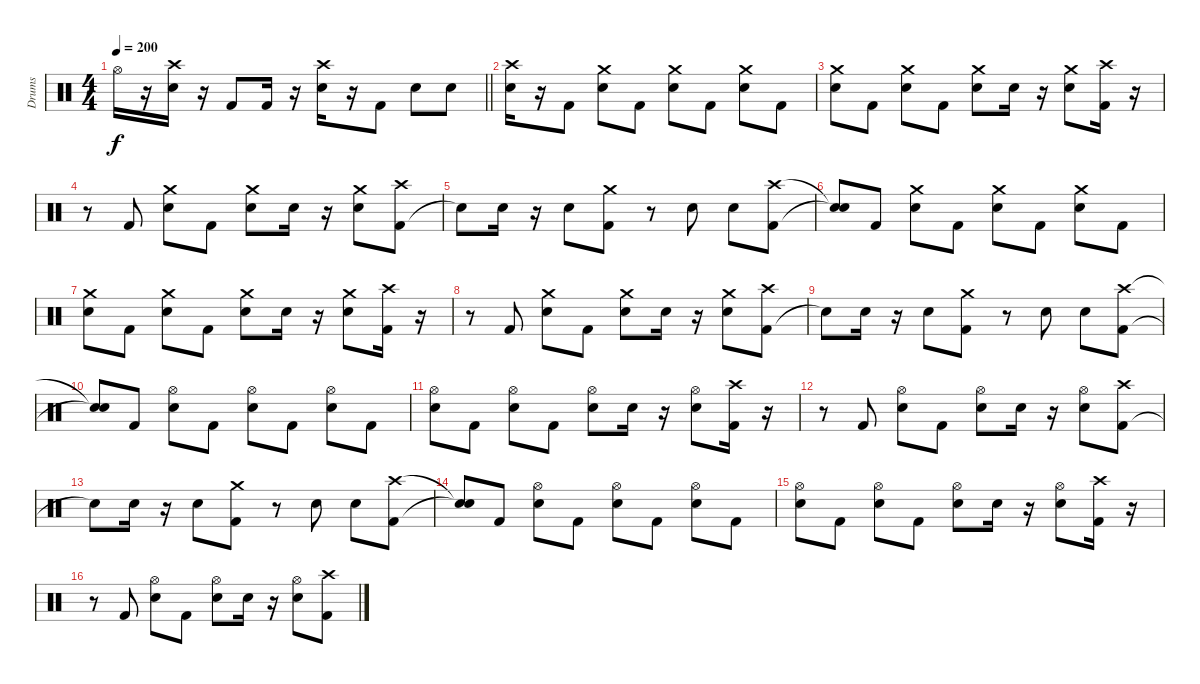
\track ("Drums" "Drums") {instrument percussion}
\staff {score}
\articulation defaults
\ts (4 4)
\tempo 200
\clef neutral
\barLineRight lightlight
\ks c "Hi-Hat (open)".16{dy f}
r.16 ("Snare (hit) 2" "Crash high (hit)").16 r.16 "Kick (hit) 2".8 "Kick (hit) 2".16 r.16 ("Snare (hit) 2" "Crash high (hit)").16 r.16 "Kick (hit) 2".8 "Snare (hit) 2".8 "Snare (hit) 2".8 |
\section ("" " ")
("Snare (hit) 2" "Crash high (hit)").16 r.16 "Kick (hit) 2".8 ("Snare (hit) 2" "Crash medium (hit)").8 "Kick (hit) 2".8 ("Snare (hit) 2" "Crash medium (hit)").8 "Kick (hit) 2".8 ("Snare (hit) 2" "Crash medium (hit)").8 "Kick (hit) 2".8 |
("Snare (hit) 2" "Crash medium (hit)").8 "Kick (hit) 2".8 ("Snare (hit) 2" "Crash medium (hit)").8 "Kick (hit) 2".8 ("Snare (hit) 2" "Crash medium (hit)").8 "Snare (hit) 2".16 r.16 ("Snare (hit) 2" "Crash medium (hit)").8 ("Kick (hit) 2" "Crash high (hit)").16 r.16 |
r.8 "Kick (hit) 2".8 ("Snare (hit) 2" "Crash medium (hit)").8 "Kick (hit) 2".8 ("Snare (hit) 2" "Crash medium (hit)").8 "Snare (hit) 2".16 r.16 ("Snare (hit) 2" "Crash medium (hit)").8 ("Kick (hit) 2" "Crash high (hit)").8 |
"Snare (hit)"{t}.8 "Snare (hit) 2".16 r.16 "Snare (hit) 2".8 ("Kick (hit) 2" "Crash medium (hit)").8 r.8 "Snare (hit) 2".8 "Snare (hit) 2".8 ("Kick (hit) 2" "Crash high (hit)").8 |
("Snare (hit)"{t} "Snare (hit)"{t}).8 "Kick (hit) 2".8 ("Snare (hit) 2" "Crash medium (hit)").8 "Kick (hit) 2".8 ("Snare (hit) 2" "Crash medium (hit)").8 "Kick (hit) 2".8 ("Snare (hit) 2" "Crash medium (hit)").8 "Kick (hit) 2".8 |
("Snare (hit) 2" "Crash medium (hit)").8 "Kick (hit) 2".8 ("Snare (hit) 2" "Crash medium (hit)").8 "Kick (hit) 2".8 ("Snare (hit) 2" "Crash medium (hit)").8 "Snare (hit) 2".16 r.16 ("Snare (hit) 2" "Crash medium (hit)").8 ("Kick (hit) 2" "Crash high (hit)").16 r.16 |
r.8 "Kick (hit) 2".8 ("Snare (hit) 2" "Crash medium (hit)").8 "Kick (hit) 2".8 ("Snare (hit) 2" "Crash medium (hit)").8 "Snare (hit) 2".16 r.16 ("Snare (hit) 2" "Crash medium (hit)").8 ("Kick (hit) 2" "Crash high (hit)").8 |
"Snare (hit)"{t}.8 "Snare (hit) 2".16 r.16 "Snare (hit) 2".8 ("Kick (hit) 2" "Crash medium (hit)").8 r.8 "Snare (hit) 2".8 "Snare (hit) 2".8 ("Kick (hit) 2" "Crash high (hit)").8 |
("Snare (hit)"{t} "Snare (hit)"{t}).8 "Kick (hit) 2".8 ("Snare (hit) 2" "Hi-Hat (open)").8 "Kick (hit) 2".8 ("Snare (hit) 2" "Hi-Hat (open)").8 "Kick (hit) 2".8 ("Snare (hit) 2" "Hi-Hat (open)").8 "Kick (hit) 2".8 |
("Snare (hit) 2" "Hi-Hat (open)").8 "Kick (hit) 2".8 ("Snare (hit) 2" "Hi-Hat (open)").8 "Kick (hit) 2".8 ("Snare (hit) 2" "Hi-Hat (open)").8 "Snare (hit) 2".16 r.16 ("Snare (hit) 2" "Hi-Hat (open)").8 ("Kick (hit) 2" "Crash high (hit)").16 r.16 |
r.8 "Kick (hit) 2".8 ("Snare (hit) 2" "Hi-Hat (open)").8 "Kick (hit) 2".8 ("Snare (hit) 2" "Hi-Hat (open)").8 "Snare (hit) 2".16 r.16 ("Snare (hit) 2" "Hi-Hat (open)").8 ("Kick (hit) 2" "Crash high (hit)").8 |
"Snare (hit)"{t}.8 "Snare (hit) 2".16 r.16 "Snare (hit) 2".8 ("Kick (hit) 2" "Crash medium (hit)").8 r.8 "Snare (hit) 2".8 "Snare (hit) 2".8 ("Kick (hit) 2" "Crash high (hit)").8 |
("Snare (hit)"{t} "Snare (hit)"{t}).8 "Kick (hit) 2".8 ("Snare (hit) 2" "Hi-Hat (open)").8 "Kick (hit) 2".8 ("Snare (hit) 2" "Hi-Hat (open)").8 "Kick (hit) 2".8 ("Snare (hit) 2" "Hi-Hat (open)").8 "Kick (hit) 2".8 |
("Snare (hit) 2" "Hi-Hat (open)").8 "Kick (hit) 2".8 ("Snare (hit) 2" "Hi-Hat (open)").8 "Kick (hit) 2".8 ("Snare (hit) 2" "Hi-Hat (open)").8 "Snare (hit) 2".16 r.16 ("Snare (hit) 2" "Hi-Hat (open)").8 ("Kick (hit) 2" "Crash high (hit)").16 r.16 |
r.8 "Kick (hit) 2".8 ("Snare (hit) 2" "Hi-Hat (open)").8 "Kick (hit) 2".8 ("Snare (hit) 2" "Hi-Hat (open)").8 "Snare (hit) 2".16 r.16 ("Snare (hit) 2" "Hi-Hat (open)").8 ("Kick (hit) 2" "Crash high (hit)").8
